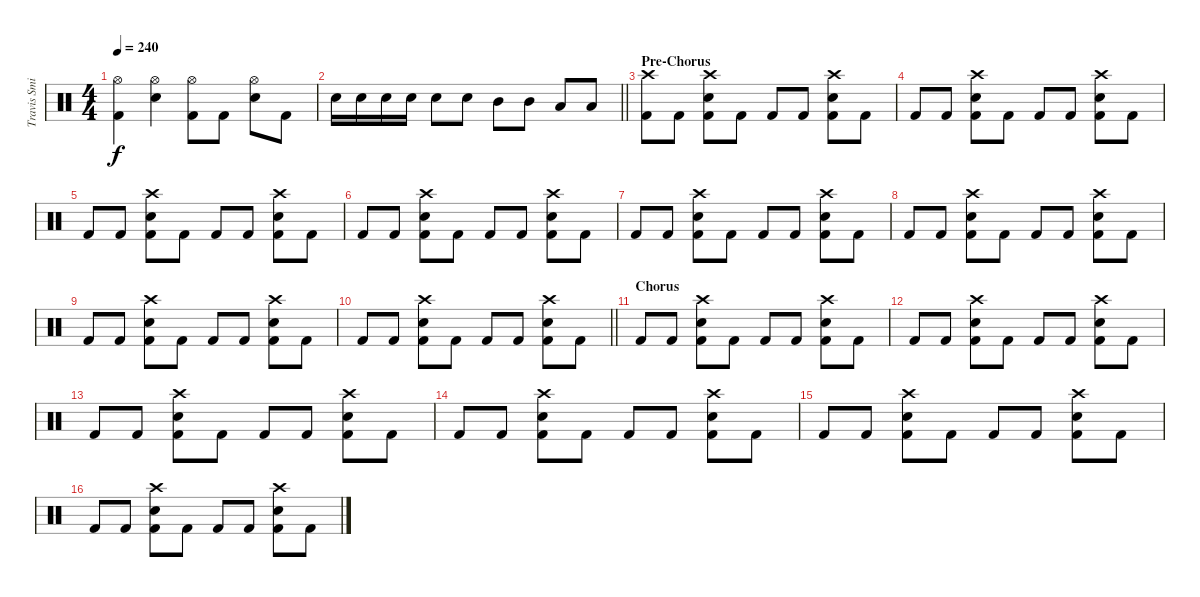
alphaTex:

\track ("Travis Smith" "Travis Smi") {instrument percussion}
\staff {score}
\articulation defaults
\ts (4 4)
\tempo 240
\clef neutral
\ks c
("Kick (hit) 2" "Hi-Hat (open)").4{dy f} ("Snare (hit) 2" "Hi-Hat (open)").4 ("Kick (hit) 2" "Hi-Hat (open)").8 "Kick (hit) 2".8 ("Snare (hit) 2" "Hi-Hat (open)").8 "Kick (hit) 2".8 |
\barLineRight lightlight "Snare (hit) 2".16 "Snare (hit) 2".16 "Snare (hit) 2".16 "Snare (hit) 2".16 "Snare (hit) 2".8 "Snare (hit) 2".8 "Mid Tom (hit)".8 "Mid Tom (hit)".8 "Low Tom (hit)".8 "Low Tom (hit)".8
|
\section ("" "Pre-Chorus")
("Kick (hit) 2" "Crash high (hit)").8 "Kick (hit) 2".8 ("Kick (hit) 2" "Snare (hit) 2" "Crash high (hit)").8 "Kick (hit) 2".8 "Kick (hit) 2".8 "Kick (hit) 2".8 ("Kick (hit) 2" "Snare (hit) 2" "Crash high (hit)").8 "Kick (hit) 2".8 |
"Kick (hit) 2".8 "Kick (hit) 2".8 ("Kick (hit) 2" "Snare (hit) 2" "Crash high (hit)").8 "Kick (hit) 2".8 "Kick (hit) 2".8 "Kick (hit) 2".8 ("Kick (hit) 2" "Snare (hit) 2" "Crash high (hit)").8 "Kick (hit) 2".8 |
"Kick (hit) 2".8 "Kick (hit) 2".8 ("Kick (hit) 2" "Snare (hit) 2" "Crash high (hit)").8 "Kick (hit) 2".8 "Kick (hit) 2".8 "Kick (hit) 2".8 ("Kick (hit) 2" "Snare (hit) 2" "Crash high (hit)").8 "Kick (hit) 2".8 |
"Kick (hit) 2".8 "Kick (hit) 2".8 ("Kick (hit) 2" "Snare (hit) 2" "Crash high (hit)").8 "Kick (hit) 2".8 "Kick (hit) 2".8 "Kick (hit) 2".8 ("Kick (hit) 2" "Snare (hit) 2" "Crash high (hit)").8 "Kick (hit) 2".8 |
"Kick (hit) 2".8 "Kick (hit) 2".8 ("Kick (hit) 2" "Snare (hit) 2" "Crash high (hit)").8 "Kick (hit) 2".8 "Kick (hit) 2".8 "Kick (hit) 2".8 ("Kick (hit) 2" "Snare (hit) 2" "Crash high (hit)").8 "Kick (hit) 2".8 |
"Kick (hit) 2".8 "Kick (hit) 2".8 ("Kick (hit) 2" "Snare (hit) 2" "Crash high (hit)").8 "Kick (hit) 2".8 "Kick (hit) 2".8 "Kick (hit) 2".8 ("Kick (hit) 2" "Snare (hit) 2" "Crash high (hit)").8 "Kick (hit) 2".8 |
"Kick (hit) 2".8 "Kick (hit) 2".8 ("Kick (hit) 2" "Snare (hit) 2" "Crash high (hit)").8 "Kick (hit) 2".8 "Kick (hit) 2".8 "Kick (hit) 2".8 ("Kick (hit) 2" "Snare (hit) 2" "Crash high (hit)").8 "Kick (hit) 2".8 |
\barLineRight lightlight "Kick (hit) 2".8 "Kick (hit) 2".8
("Kick (hit) 2" "Snare (hit) 2" "Crash high (hit)").8 "Kick (hit) 2".8 "Kick (hit) 2".8 "Kick (hit) 2".8 ("Kick (hit) 2" "Snare (hit) 2" "Crash high (hit)").8 "Kick (hit) 2".8 |
\section ("" "Chorus")
"Kick (hit) 2".8 "Kick (hit) 2".8 ("Kick (hit) 2" "Snare (hit) 2" "Crash high (hit)").8 "Kick (hit) 2".8 "Kick (hit) 2".8 "Kick (hit) 2".8 ("Kick (hit) 2" "Snare (hit) 2" "Crash high (hit)").8 "Kick (hit) 2".8 |
"Kick (hit) 2".8 "Kick (hit) 2".8 ("Kick (hit) 2" "Snare (hit) 2" "Crash high (hit)").8 "Kick (hit) 2".8 "Kick (hit) 2".8 "Kick (hit) 2".8 ("Kick (hit) 2" "Snare (hit) 2" "Crash high (hit)").8 "Kick (hit) 2".8 |
"Kick (hit) 2".8 "Kick (hit) 2".8 ("Kick (hit) 2" "Snare (hit) 2" "Crash high (hit)").8 "Kick (hit) 2".8 "Kick (hit) 2".8 "Kick (hit) 2".8 ("Kick (hit) 2" "Snare (hit) 2" "Crash high (hit)").8 "Kick (hit) 2".8 |
"Kick (hit) 2".8 "Kick (hit) 2".8 ("Kick (hit) 2" "Snare (hit) 2" "Crash high (hit)").8 "Kick (hit) 2".8 "Kick (hit) 2".8 "Kick (hit) 2".8 ("Kick (hit) 2" "Snare (hit) 2" "Crash high (hit)").8 "Kick (hit) 2".8 |
"Kick (hit) 2".8 "Kick (hit) 2".8 ("Kick (hit) 2" "Snare (hit) 2" "Crash high (hit)").8 "Kick (hit) 2".8 "Kick (hit) 2".8 "Kick (hit) 2".8 ("Kick (hit) 2" "Snare (hit) 2" "Crash high (hit)").8 "Kick (hit) 2".8 |
"Kick (hit) 2".8 "Kick (hit) 2".8 ("Kick (hit) 2" "Snare (hit) 2" "Crash high (hit)").8 "Kick (hit) 2".8 "Kick (hit) 2".8 "Kick (hit) 2".8 ("Kick (hit) 2" "Snare (hit) 2" "Crash high (hit)").8 "Kick (hit) 2".8
